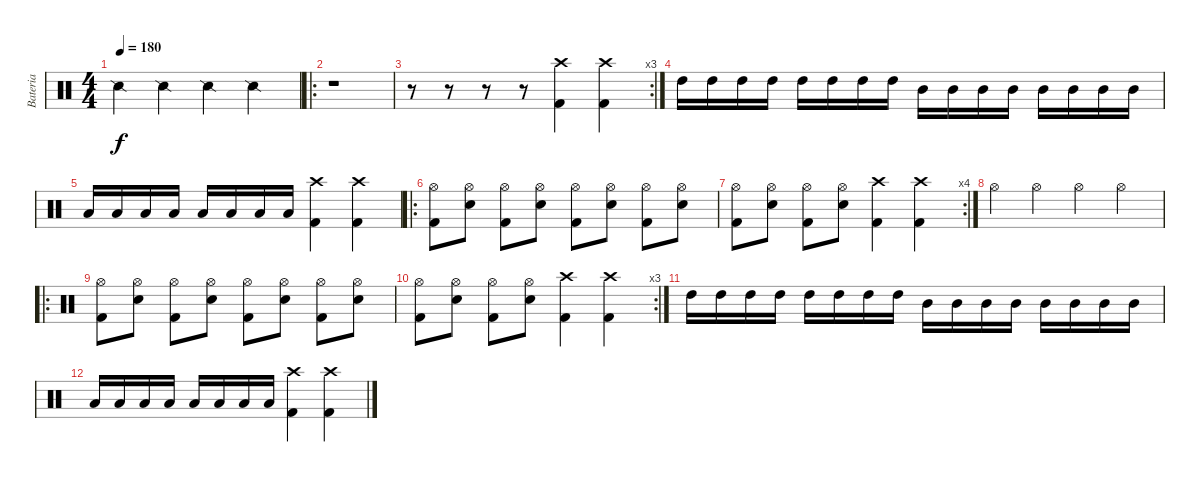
\track ("Bateria" "Bateria") {instrument percussion}
\staff {score}
\articulation defaults
\ts (4 4)
\tempo 180
\clef neutral
\ks c "Snare (side stick) 2".4{dy f} "Snare (side stick) 2".4 "Snare (side stick) 2".4 "Snare (side stick) 2".4
|
\ro
r.1 |
\rc 3
r.8 r.8 r.8 r.8 ("Crash high (hit)" "Kick (hit) 2").4 ("Crash high (hit)" "Kick (hit) 2").4 |
"High Tom (hit)".16 "High Tom (hit)".16 "High Tom (hit)".16 "High Tom (hit)".16 "High Tom (hit)".16 "High Tom (hit)".16 "High Tom (hit)".16 "High Tom (hit)".16 "Mid Tom (hit)".16 "Mid Tom (hit)".16 "Mid Tom (hit)".16 "Mid Tom (hit)".16 "Mid Tom (hit)".16 "Mid Tom (hit)".16 "Mid Tom (hit)".16 "Mid Tom (hit)".16 |
"Low Tom (hit)".16 "Low Tom (hit)".16 "Low Tom (hit)".16 "Low Tom (hit)".16 "Low Tom (hit)".16 "Low Tom (hit)".16 "Low Tom (hit)".16 "Low Tom (hit)".16 ("Crash high (hit)" "Kick (hit) 2").4 ("Crash high (hit)" "Kick (hit) 2").4 |
\ro
("Hi-Hat (open)" "Kick (hit) 2").8 ("Hi-Hat (open)" "Electric Snare (hit)").8 ("Hi-Hat (open)" "Kick (hit) 2").8 ("Hi-Hat (open)" "Electric Snare (hit)").8 ("Hi-Hat (open)" "Kick (hit) 2").8 ("Hi-Hat (open)" "Electric Snare (hit)").8 ("Hi-Hat (open)" "Kick (hit) 2").8 ("Hi-Hat (open)" "Electric Snare (hit)").8 |
\rc 4
("Hi-Hat (open)" "Kick (hit) 2").8 ("Hi-Hat (open)" "Electric Snare (hit)").8 ("Hi-Hat (open)" "Kick (hit) 2").8 ("Hi-Hat (open)" "Electric Snare (hit)").8 ("Crash high (hit)" "Kick (hit) 2").4 ("Crash high (hit)" "Kick (hit) 2").4 |
"Hi-Hat (open)".4 "Hi-Hat (open)".4 "Hi-Hat (open)".4 "Hi-Hat (open)".4 |
\ro
("Hi-Hat (open)" "Kick (hit) 2").8 ("Hi-Hat (open)" "Electric Snare (hit)").8 ("Hi-Hat (open)" "Kick (hit) 2").8 ("Hi-Hat (open)" "Electric Snare (hit)").8 ("Hi-Hat (open)" "Kick (hit) 2").8 ("Hi-Hat (open)" "Electric Snare (hit)").8 ("Hi-Hat (open)" "Kick (hit) 2").8 ("Hi-Hat (open)" "Electric Snare (hit)").8 |
\rc 3
("Hi-Hat (open)" "Kick (hit) 2").8 ("Hi-Hat (open)" "Electric Snare (hit)").8 ("Hi-Hat (open)" "Kick (hit) 2").8 ("Hi-Hat (open)" "Electric Snare (hit)").8 ("Crash high (hit)" "Kick (hit) 2").4 ("Crash high (hit)" "Kick (hit) 2").4 |
"High Tom (hit)".16 "High Tom (hit)".16 "High Tom (hit)".16 "High Tom (hit)".16 "High Tom (hit)".16 "High Tom (hit)".16 "High Tom (hit)".16 "High Tom (hit)".16 "Mid Tom (hit)".16 "Mid Tom (hit)".16 "Mid Tom (hit)".16 "Mid Tom (hit)".16 "Mid Tom (hit)".16 "Mid Tom (hit)".16 "Mid Tom (hit)".16 "Mid Tom (hit)".16 |
"Low Tom (hit)".16 "Low Tom (hit)".16 "Low Tom (hit)".16 "Low Tom (hit)".16 "Low Tom (hit)".16 "Low Tom (hit)".16 "Low Tom (hit)".16 "Low Tom (hit)".16 ("Crash high (hit)" "Kick (hit) 2").4 ("Crash high (hit)" "Kick (hit) 2").4
